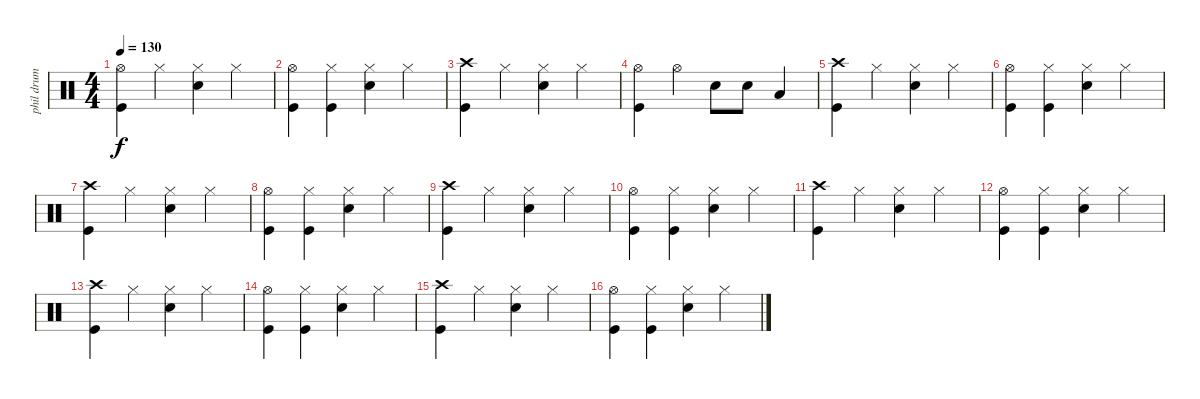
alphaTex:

\track ("phil drum" "phil drum") {instrument percussion}
\staff {score}
\articulation defaults
\ts (4 4)
\tempo 130
\clef neutral
\ks c
("Hi-Hat (open)" "Kick (hit)").4{dy f} "Hi-Hat (closed)".4 ("Hi-Hat (closed)" "Snare (hit) 2").4 "Hi-Hat (closed)".4 |
("Hi-Hat (open)" "Kick (hit)").4 ("Hi-Hat (closed)" "Kick (hit)").4 ("Hi-Hat (closed)" "Snare (hit) 2").4 "Hi-Hat (closed)".4 |
("Crash high (hit)" "Kick (hit)").4 "Hi-Hat (closed)".4 ("Hi-Hat (closed)" "Snare (hit) 2").4 "Hi-Hat (closed)".4 |
("Hi-Hat (open)" "Kick (hit)").4 "Hi-Hat (open)".4 "Snare (hit) 2".8 "Snare (hit) 2".8 "Low Tom (hit)".4 |
("Crash high (hit)" "Kick (hit)").4 "Hi-Hat (closed)".4 ("Hi-Hat (closed)" "Snare (hit) 2").4 "Hi-Hat (closed)".4 |
("Hi-Hat (open)" "Kick (hit)").4 ("Hi-Hat (closed)" "Kick (hit)").4 ("Hi-Hat (closed)" "Snare (hit) 2").4 "Hi-Hat (closed)".4 |
("Crash high (hit)" "Kick (hit)").4 "Hi-Hat (closed)".4 ("Hi-Hat (closed)" "Snare (hit) 2").4 "Hi-Hat (closed)".4 |
("Hi-Hat (open)" "Kick (hit)").4 ("Hi-Hat (closed)" "Kick (hit)").4 ("Hi-Hat (closed)" "Snare (hit) 2").4 "Hi-Hat (closed)".4 |
("Crash high (hit)" "Kick (hit)").4 "Hi-Hat (closed)".4 ("Hi-Hat (closed)" "Snare (hit) 2").4 "Hi-Hat (closed)".4 |
("Hi-Hat (open)" "Kick (hit)").4 ("Hi-Hat (closed)" "Kick (hit)").4 ("Hi-Hat (closed)" "Snare (hit) 2").4 "Hi-Hat (closed)".4 |
("Crash high (hit)" "Kick (hit)").4 "Hi-Hat (closed)".4 ("Hi-Hat (closed)" "Snare (hit) 2").4 "Hi-Hat (closed)".4 |
("Hi-Hat (open)" "Kick (hit)").4 ("Hi-Hat (closed)" "Kick (hit)").4 ("Hi-Hat (closed)" "Snare (hit) 2").4 "Hi-Hat (closed)".4 |
("Crash high (hit)" "Kick (hit)").4 "Hi-Hat (closed)".4 ("Hi-Hat (closed)" "Snare (hit) 2").4 "Hi-Hat (closed)".4 |
("Hi-Hat (open)" "Kick (hit)").4 ("Hi-Hat (closed)" "Kick (hit)").4 ("Hi-Hat (closed)" "Snare (hit) 2").4 "Hi-Hat (closed)".4 |
("Crash high (hit)" "Kick (hit)").4 "Hi-Hat (closed)".4 ("Hi-Hat (closed)" "Snare (hit) 2").4 "Hi-Hat (closed)".4 |
("Hi-Hat (open)" "Kick (hit)").4 ("Hi-Hat (closed)" "Kick (hit)").4 ("Hi-Hat (closed)" "Snare (hit) 2").4 "Hi-Hat (closed)".4
